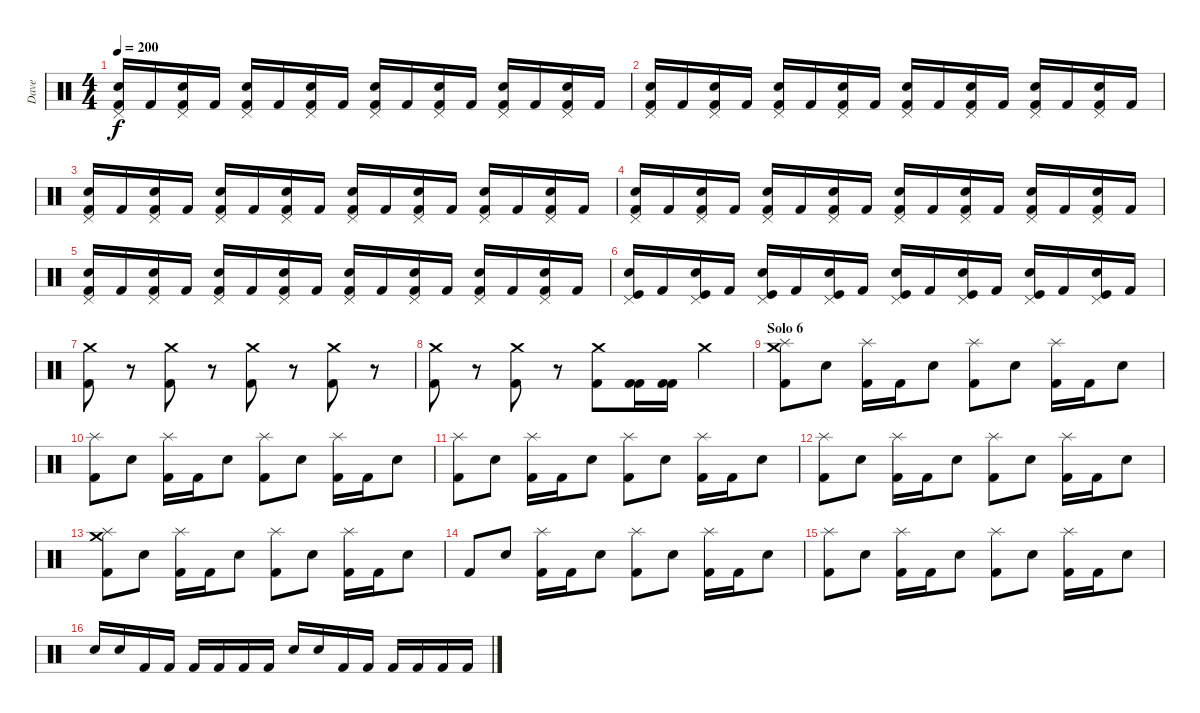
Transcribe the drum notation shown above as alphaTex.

\track ("Dave" "Dave") {instrument percussion}
\staff {score}
\articulation defaults
\ts (4 4)
\tempo 200
\clef neutral
\ks c
("Snare (hit) 2" "Pedal Hi-Hat (hit)" "Kick (hit) 2").16{dy f} "Kick (hit) 2".16 ("Snare (hit) 2" "Pedal Hi-Hat (hit)" "Kick (hit) 2").16 "Kick (hit) 2".16 ("Snare (hit) 2" "Pedal Hi-Hat (hit)" "Kick (hit) 2").16 "Kick (hit) 2".16 ("Snare (hit) 2" "Pedal Hi-Hat (hit)" "Kick (hit) 2").16 "Kick (hit) 2".16 ("Snare (hit) 2" "Pedal Hi-Hat (hit)" "Kick (hit) 2").16 "Kick (hit) 2".16 ("Snare (hit) 2" "Pedal Hi-Hat (hit)" "Kick (hit) 2").16 "Kick (hit) 2".16 ("Snare (hit) 2" "Pedal Hi-Hat (hit)" "Kick (hit) 2").16 "Kick (hit) 2".16 ("Snare (hit) 2" "Pedal Hi-Hat (hit)" "Kick (hit) 2").16 "Kick (hit) 2".16 |
("Snare (hit) 2" "Pedal Hi-Hat (hit)" "Kick (hit) 2").16 "Kick (hit) 2".16 ("Snare (hit) 2" "Pedal Hi-Hat (hit)" "Kick (hit) 2").16 "Kick (hit) 2".16 ("Snare (hit) 2" "Pedal Hi-Hat (hit)" "Kick (hit) 2").16 "Kick (hit) 2".16 ("Snare (hit) 2" "Pedal Hi-Hat (hit)" "Kick (hit) 2").16 "Kick (hit) 2".16 ("Snare (hit) 2" "Pedal Hi-Hat (hit)" "Kick (hit) 2").16 "Kick (hit) 2".16 ("Snare (hit) 2" "Pedal Hi-Hat (hit)" "Kick (hit) 2").16 "Kick (hit) 2".16 ("Snare (hit) 2" "Pedal Hi-Hat (hit)" "Kick (hit) 2").16 "Kick (hit) 2".16 ("Snare (hit) 2" "Pedal Hi-Hat (hit)" "Kick (hit) 2").16 "Kick (hit) 2".16 |
("Snare (hit) 2" "Pedal Hi-Hat (hit)" "Kick (hit) 2").16 "Kick (hit) 2".16 ("Snare (hit) 2" "Pedal Hi-Hat (hit)" "Kick (hit) 2").16 "Kick (hit) 2".16 ("Snare (hit) 2" "Pedal Hi-Hat (hit)" "Kick (hit) 2").16 "Kick (hit) 2".16 ("Snare (hit) 2" "Pedal Hi-Hat (hit)" "Kick (hit) 2").16 "Kick (hit) 2".16 ("Snare (hit) 2" "Pedal Hi-Hat (hit)" "Kick (hit) 2").16 "Kick (hit) 2".16 ("Snare (hit) 2" "Pedal Hi-Hat (hit)" "Kick (hit) 2").16 "Kick (hit) 2".16 ("Snare (hit) 2" "Pedal Hi-Hat (hit)" "Kick (hit) 2").16 "Kick (hit) 2".16 ("Snare (hit) 2" "Pedal Hi-Hat (hit)" "Kick (hit) 2").16 "Kick (hit) 2".16 |
("Snare (hit) 2" "Pedal Hi-Hat (hit)" "Kick (hit) 2").16 "Kick (hit) 2".16 ("Snare (hit) 2" "Pedal Hi-Hat (hit)" "Kick (hit) 2").16 "Kick (hit) 2".16 ("Snare (hit) 2" "Pedal Hi-Hat (hit)" "Kick (hit) 2").16 "Kick (hit) 2".16 ("Snare (hit) 2" "Pedal Hi-Hat (hit)" "Kick (hit) 2").16 "Kick (hit) 2".16 ("Snare (hit) 2" "Pedal Hi-Hat (hit)" "Kick (hit) 2").16 "Kick (hit) 2".16 ("Snare (hit) 2" "Pedal Hi-Hat (hit)" "Kick (hit) 2").16 "Kick (hit) 2".16 ("Snare (hit) 2" "Pedal Hi-Hat (hit)" "Kick (hit) 2").16 "Kick (hit) 2".16 ("Snare (hit) 2" "Pedal Hi-Hat (hit)" "Kick (hit) 2").16 "Kick (hit) 2".16 |
("Snare (hit) 2" "Pedal Hi-Hat (hit)" "Kick (hit) 2").16 "Kick (hit) 2".16 ("Snare (hit) 2" "Pedal Hi-Hat (hit)" "Kick (hit) 2").16 "Kick (hit) 2".16 ("Snare (hit) 2" "Pedal Hi-Hat (hit)" "Kick (hit) 2").16 "Kick (hit) 2".16 ("Snare (hit) 2" "Pedal Hi-Hat (hit)" "Kick (hit) 2").16 "Kick (hit) 2".16 ("Snare (hit) 2" "Pedal Hi-Hat (hit)" "Kick (hit) 2").16 "Kick (hit) 2".16 ("Snare (hit) 2" "Pedal Hi-Hat (hit)" "Kick (hit) 2").16 "Kick (hit) 2".16 ("Snare (hit) 2" "Pedal Hi-Hat (hit)" "Kick (hit) 2").16 "Kick (hit) 2".16 ("Snare (hit) 2" "Pedal Hi-Hat (hit)" "Kick (hit) 2").16 "Kick (hit) 2".16 |
("Snare (hit) 2" "Pedal Hi-Hat (hit)" "Kick (hit)").16 "Kick (hit) 2".16 ("Snare (hit) 2" "Pedal Hi-Hat (hit)" "Kick (hit)").16 "Kick (hit) 2".16 ("Snare (hit) 2" "Pedal Hi-Hat (hit)" "Kick (hit)").16 "Kick (hit) 2".16 ("Snare (hit) 2" "Pedal Hi-Hat (hit)" "Kick (hit)").16 "Kick (hit) 2".16 ("Snare (hit) 2" "Pedal Hi-Hat (hit)" "Kick (hit)").16 "Kick (hit) 2".16 ("Snare (hit) 2" "Pedal Hi-Hat (hit)" "Kick (hit)").16 "Kick (hit) 2".16 ("Snare (hit) 2" "Pedal Hi-Hat (hit)" "Kick (hit)").16 "Kick (hit) 2".16 ("Snare (hit) 2" "Pedal Hi-Hat (hit)" "Kick (hit)").16 "Kick (hit) 2".16 |
("Crash medium (hit)" "Kick (hit) 2").8 r.8 ("Crash medium (hit)" "Kick (hit) 2").8 r.8 ("Crash medium (hit)" "Kick (hit) 2").8 r.8 ("Crash medium (hit)" "Kick (hit) 2").8 r.8 |
("Crash medium (hit)" "Kick (hit) 2").8 r.8 ("Crash medium (hit)" "Kick (hit) 2").8 r.8 ("Crash medium (hit)" "Kick (hit) 2").8 ("Kick (hit) 2" "Kick (hit) 2").16 ("Kick (hit) 2" "Kick (hit) 2").16 "Crash medium (hit)".4 |
\section ("" "Solo 6")
("Crash medium (hit)" "Splash (hit)" "Kick (hit) 2").8 "Snare (hit) 2".8 ("Splash (hit)" "Kick (hit) 2").16 "Kick (hit) 2".16 "Snare (hit) 2".8 ("Splash (hit)" "Kick (hit) 2").8 "Snare (hit) 2".8 ("Splash (hit)" "Kick (hit) 2").16 "Kick (hit) 2".16 "Snare (hit) 2".8 |
("Splash (hit)" "Kick (hit) 2").8 "Snare (hit) 2".8 ("Splash (hit)" "Kick (hit) 2").16 "Kick (hit) 2".16 "Snare (hit) 2".8 ("Splash (hit)" "Kick (hit) 2").8 "Snare (hit) 2".8 ("Splash (hit)" "Kick (hit) 2").16 "Kick (hit) 2".16 "Snare (hit) 2".8 |
("Splash (hit)" "Kick (hit) 2").8 "Snare (hit) 2".8 ("Splash (hit)" "Kick (hit) 2").16 "Kick (hit) 2".16 "Snare (hit) 2".8 ("Splash (hit)" "Kick (hit) 2").8 "Snare (hit) 2".8 ("Splash (hit)" "Kick (hit) 2").16 "Kick (hit) 2".16 "Snare (hit) 2".8 |
("Splash (hit)" "Kick (hit) 2").8 "Snare (hit) 2".8 ("Splash (hit)" "Kick (hit) 2").16 "Kick (hit) 2".16 "Snare (hit) 2".8 ("Splash (hit)" "Kick (hit) 2").8 "Snare (hit) 2".8 ("Splash (hit)" "Kick (hit) 2").16 "Kick (hit) 2".16 "Snare (hit) 2".8 |
("Crash medium (hit)" "Splash (hit)" "Kick (hit) 2").8 "Snare (hit) 2".8 ("Splash (hit)" "Kick (hit) 2").16 "Kick (hit) 2".16 "Snare (hit) 2".8 ("Splash (hit)" "Kick (hit) 2").8 "Snare (hit) 2".8 ("Splash (hit)" "Kick (hit) 2").16 "Kick (hit) 2".16 "Snare (hit) 2".8 |
"Kick (hit) 2".8 "Snare (hit) 2".8 ("Splash (hit)" "Kick (hit) 2").16 "Kick (hit) 2".16 "Snare (hit) 2".8 ("Splash (hit)" "Kick (hit) 2").8 "Snare (hit) 2".8 ("Splash (hit)" "Kick (hit) 2").16 "Kick (hit) 2".16 "Snare (hit) 2".8 |
("Splash (hit)" "Kick (hit) 2").8 "Snare (hit) 2".8 ("Splash (hit)" "Kick (hit) 2").16 "Kick (hit) 2".16 "Snare (hit) 2".8 ("Splash (hit)" "Kick (hit) 2").8 "Snare (hit) 2".8 ("Splash (hit)" "Kick (hit) 2").16 "Kick (hit) 2".16 "Snare (hit) 2".8 |
"Snare (hit) 2".16 "Snare (hit) 2".16 "Kick (hit) 2".16 "Kick (hit) 2".16 "Kick (hit) 2".16 "Kick (hit) 2".16 "Kick (hit) 2".16 "Kick (hit) 2".16 "Snare (hit) 2".16 "Snare (hit) 2".16 "Kick (hit) 2".16 "Kick (hit) 2".16 "Kick (hit) 2".16 "Kick (hit) 2".16 "Kick (hit) 2".16 "Kick (hit) 2".16
